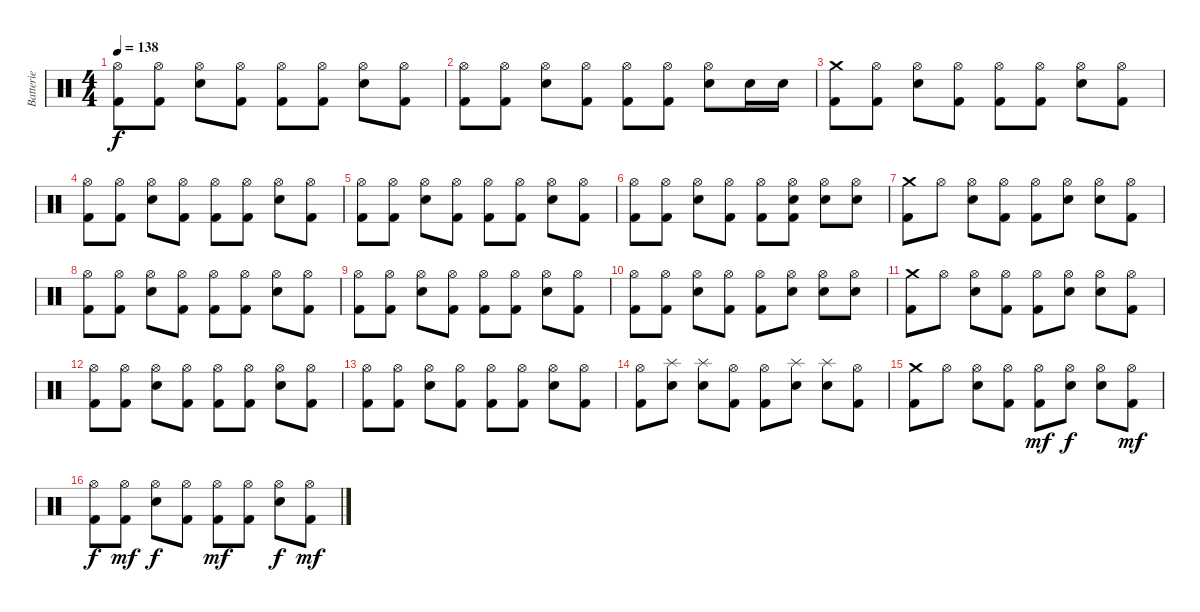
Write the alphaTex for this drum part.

\track ("Batterie" "Batterie") {instrument percussion}
\staff {score}
\articulation defaults
\ts (4 4)
\tempo 138
\clef neutral
\ks c
("Hi-Hat (open)" "Kick (hit) 2").8{dy f} ("Hi-Hat (open)" "Kick (hit) 2").8 ("Hi-Hat (open)" "Electric Snare (hit)").8 ("Hi-Hat (open)" "Kick (hit) 2").8 ("Hi-Hat (open)" "Kick (hit) 2").8 ("Hi-Hat (open)" "Kick (hit) 2").8 ("Hi-Hat (open)" "Electric Snare (hit)").8 ("Hi-Hat (open)" "Kick (hit) 2").8 |
("Hi-Hat (open)" "Kick (hit) 2").8 ("Hi-Hat (open)" "Kick (hit) 2").8 ("Hi-Hat (open)" "Electric Snare (hit)").8 ("Hi-Hat (open)" "Kick (hit) 2").8 ("Hi-Hat (open)" "Kick (hit) 2").8 ("Hi-Hat (open)" "Kick (hit) 2").8 ("Hi-Hat (open)" "Electric Snare (hit)").8 "Electric Snare (hit)".16 "Electric Snare (hit)".16 |
("Crash medium (hit)" "Kick (hit) 2").8 ("Hi-Hat (open)" "Kick (hit) 2").8 ("Hi-Hat (open)" "Electric Snare (hit)").8 ("Hi-Hat (open)" "Kick (hit) 2").8 ("Hi-Hat (open)" "Kick (hit) 2").8 ("Hi-Hat (open)" "Kick (hit) 2").8 ("Hi-Hat (open)" "Electric Snare (hit)").8 ("Hi-Hat (open)" "Kick (hit) 2").8 |
("Hi-Hat (open)" "Kick (hit) 2").8 ("Hi-Hat (open)" "Kick (hit) 2").8 ("Hi-Hat (open)" "Electric Snare (hit)").8 ("Hi-Hat (open)" "Kick (hit) 2").8 ("Hi-Hat (open)" "Kick (hit) 2").8 ("Hi-Hat (open)" "Kick (hit) 2").8 ("Hi-Hat (open)" "Electric Snare (hit)").8 ("Hi-Hat (open)" "Kick (hit) 2").8 |
("Hi-Hat (open)" "Kick (hit) 2").8 ("Hi-Hat (open)" "Kick (hit) 2").8 ("Hi-Hat (open)" "Electric Snare (hit)").8 ("Hi-Hat (open)" "Kick (hit) 2").8 ("Hi-Hat (open)" "Kick (hit) 2").8 ("Hi-Hat (open)" "Kick (hit) 2").8 ("Hi-Hat (open)" "Electric Snare (hit)").8 ("Hi-Hat (open)" "Kick (hit) 2").8 |
("Hi-Hat (open)" "Kick (hit) 2").8 ("Hi-Hat (open)" "Kick (hit) 2").8 ("Hi-Hat (open)" "Electric Snare (hit)").8 ("Hi-Hat (open)" "Kick (hit) 2").8 ("Hi-Hat (open)" "Kick (hit) 2").8 ("Hi-Hat (open)" "Electric Snare (hit)" "Kick (hit) 2").8 ("Hi-Hat (open)" "Electric Snare (hit)").8 ("Hi-Hat (open)" "Electric Snare (hit)").8 |
("Crash medium (hit)" "Kick (hit) 2").8 "Hi-Hat (open)".8 ("Hi-Hat (open)" "Electric Snare (hit)").8 ("Hi-Hat (open)" "Kick (hit) 2").8 ("Hi-Hat (open)" "Kick (hit) 2").8 ("Hi-Hat (open)" "Electric Snare (hit)").8 ("Hi-Hat (open)" "Electric Snare (hit)").8 ("Hi-Hat (open)" "Kick (hit) 2").8 |
("Hi-Hat (open)" "Kick (hit) 2").8 ("Hi-Hat (open)" "Kick (hit) 2").8 ("Hi-Hat (open)" "Electric Snare (hit)").8 ("Hi-Hat (open)" "Kick (hit) 2").8 ("Hi-Hat (open)" "Kick (hit) 2").8 ("Hi-Hat (open)" "Kick (hit) 2").8 ("Hi-Hat (open)" "Electric Snare (hit)").8 ("Hi-Hat (open)" "Kick (hit) 2").8 |
("Hi-Hat (open)" "Kick (hit) 2").8 ("Hi-Hat (open)" "Kick (hit) 2").8 ("Hi-Hat (open)" "Electric Snare (hit)").8 ("Hi-Hat (open)" "Kick (hit) 2").8 ("Hi-Hat (open)" "Kick (hit) 2").8 ("Hi-Hat (open)" "Kick (hit) 2").8 ("Hi-Hat (open)" "Electric Snare (hit)").8 ("Hi-Hat (open)" "Kick (hit) 2").8 |
("Hi-Hat (open)" "Kick (hit) 2").8 ("Hi-Hat (open)" "Kick (hit) 2").8 ("Hi-Hat (open)" "Electric Snare (hit)").8 ("Hi-Hat (open)" "Kick (hit) 2").8 ("Hi-Hat (open)" "Kick (hit) 2").8 ("Hi-Hat (open)" "Electric Snare (hit)").8 ("Hi-Hat (open)" "Electric Snare (hit)").8 ("Hi-Hat (open)" "Electric Snare (hit)").8 |
("Crash medium (hit)" "Kick (hit) 2").8 "Hi-Hat (open)".8 ("Hi-Hat (open)" "Electric Snare (hit)").8 ("Hi-Hat (open)" "Kick (hit) 2").8 ("Hi-Hat (open)" "Kick (hit) 2").8 ("Hi-Hat (open)" "Electric Snare (hit)").8 ("Hi-Hat (open)" "Electric Snare (hit)").8 ("Hi-Hat (open)" "Kick (hit) 2").8 |
("Hi-Hat (open)" "Kick (hit) 2").8 ("Hi-Hat (open)" "Kick (hit) 2").8 ("Hi-Hat (open)" "Electric Snare (hit)").8 ("Hi-Hat (open)" "Kick (hit) 2").8 ("Hi-Hat (open)" "Kick (hit) 2").8 ("Hi-Hat (open)" "Kick (hit) 2").8 ("Hi-Hat (open)" "Electric Snare (hit)").8 ("Hi-Hat (open)" "Kick (hit) 2").8 |
("Hi-Hat (open)" "Kick (hit) 2").8 ("Hi-Hat (open)" "Kick (hit) 2").8 ("Hi-Hat (open)" "Electric Snare (hit)").8 ("Hi-Hat (open)" "Kick (hit) 2").8 ("Hi-Hat (open)" "Kick (hit) 2").8 ("Hi-Hat (open)" "Kick (hit) 2").8 ("Hi-Hat (open)" "Electric Snare (hit)").8 ("Hi-Hat (open)" "Kick (hit) 2").8 |
("Hi-Hat (open)" "Kick (hit) 2").8 ("Splash (hit)" "Electric Snare (hit)").8 ("Splash (hit)" "Electric Snare (hit)").8 ("Hi-Hat (open)" "Kick (hit) 2").8 ("Hi-Hat (open)" "Kick (hit) 2").8 ("Splash (hit)" "Electric Snare (hit)").8 ("Splash (hit)" "Electric Snare (hit)").8 ("Hi-Hat (open)" "Kick (hit) 2").8 |
("Crash medium (hit)" "Kick (hit) 2").8 "Hi-Hat (open)".8 ("Hi-Hat (open)" "Electric Snare (hit)").8 ("Hi-Hat (open)" "Kick (hit) 2").8 ("Hi-Hat (open)" "Kick (hit) 2").8{dy mf} ("Hi-Hat (open)" "Electric Snare (hit)").8{dy f} ("Hi-Hat (open)" "Electric Snare (hit)").8 ("Hi-Hat (open)" "Kick (hit) 2").8{dy mf} |
("Hi-Hat (open)" "Kick (hit) 2").8{dy f} ("Hi-Hat (open)" "Kick (hit) 2").8{dy mf} ("Hi-Hat (open)" "Electric Snare (hit)").8{dy f} ("Hi-Hat (open)" "Kick (hit) 2").8 ("Hi-Hat (open)" "Kick (hit) 2").8{dy mf} ("Hi-Hat (open)" "Kick (hit) 2").8 ("Hi-Hat (open)" "Electric Snare (hit)").8{dy f} ("Hi-Hat (open)" "Kick (hit) 2").8{dy mf}
